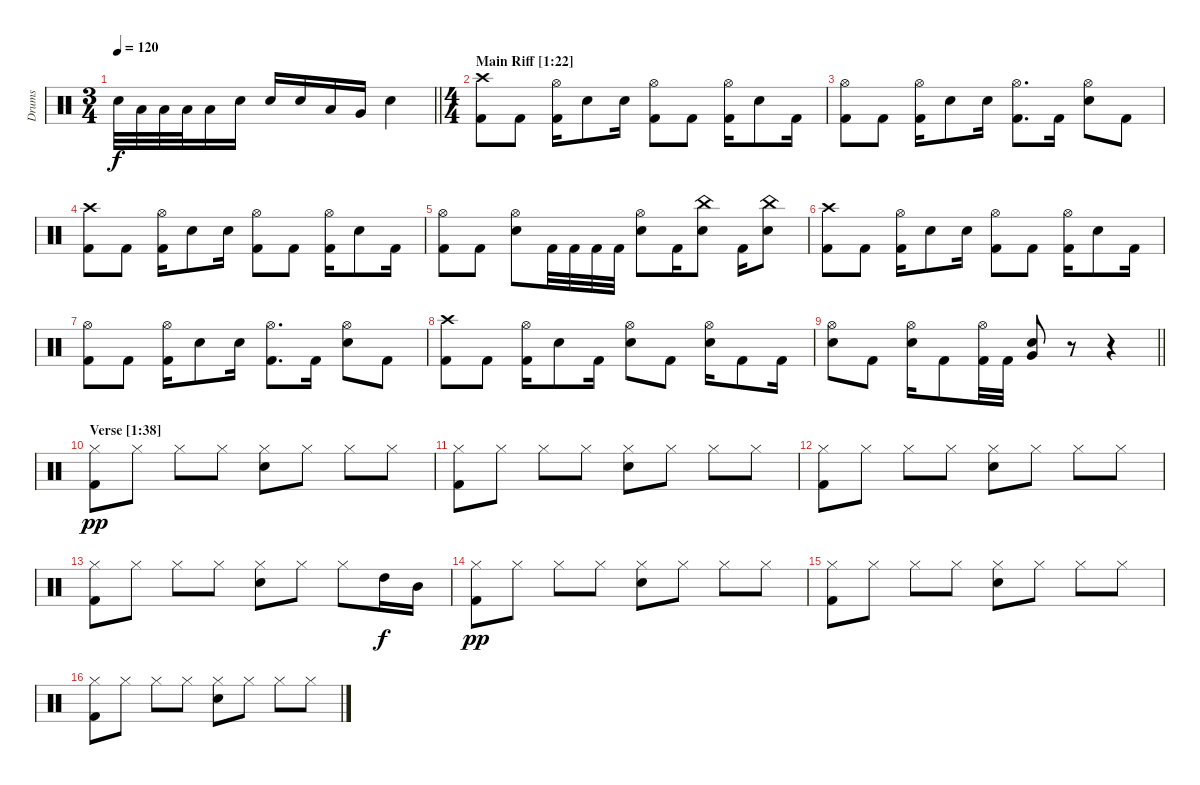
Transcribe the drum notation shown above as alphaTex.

\track ("Drums" "Drums") {instrument percussion}
\staff {score}
\articulation defaults
\ts (3 4)
\tempo 120
\clef neutral
\barLineRight lightlight
\ks c "Snare (hit) 2".32{dy f volume 16} "Low Tom (hit)".32 "Low Tom (hit)".32 "Low Tom (hit)".32 "Low Tom (hit)".16 "Snare (hit) 2".16 "Snare (hit) 2".16 "Snare (hit) 2".16 "Low Tom (hit)".16 "Very Low Tom (hit)".16 "Snare (hit) 2".4
|
\ts (4 4)
\section ("" "Main Riff [1:22]")
("Crash high (hit)" "Kick (hit) 2").8 "Kick (hit) 2".8 ("Hi-Hat (open)" "Kick (hit) 2").16 "Snare (hit) 2".8 "Snare (hit) 2".16 ("Hi-Hat (open)" "Kick (hit) 2").8 "Kick (hit) 2".8 ("Hi-Hat (open)" "Kick (hit) 2").16 "Snare (hit) 2".8 "Kick (hit) 2".16 |
("Hi-Hat (open)" "Kick (hit) 2").8 "Kick (hit) 2".8 ("Hi-Hat (open)" "Kick (hit) 2").16 "Snare (hit) 2".8 "Snare (hit) 2".16 ("Hi-Hat (open)" "Kick (hit) 2").8{d} "Kick (hit) 2".16 ("Hi-Hat (open)" "Snare (hit) 2").8 "Kick (hit) 2".8 |
("Crash high (hit)" "Kick (hit) 2").8 "Kick (hit) 2".8 ("Hi-Hat (open)" "Kick (hit) 2").16 "Snare (hit) 2".8 "Snare (hit) 2".16 ("Hi-Hat (open)" "Kick (hit) 2").8 "Kick (hit) 2".8 ("Hi-Hat (open)" "Kick (hit) 2").16 "Snare (hit) 2".8 "Kick (hit) 2".16 |
("Hi-Hat (open)" "Kick (hit) 2").8 "Kick (hit) 2".8 ("Hi-Hat (open)" "Snare (hit) 2").8 "Kick (hit) 2".32 "Kick (hit) 2".32 "Kick (hit) 2".32 "Kick (hit) 2".32 ("Hi-Hat (open)" "Snare (hit) 2").8 "Kick (hit) 2".16 ("China (hit)" "Snare (hit) 2").8 "Kick (hit) 2".16 ("China (hit)" "Snare (hit) 2").8 |
("Crash high (hit)" "Kick (hit) 2").8 "Kick (hit) 2".8 ("Hi-Hat (open)" "Kick (hit) 2").16 "Snare (hit) 2".8 "Snare (hit) 2".16 ("Hi-Hat (open)" "Kick (hit) 2").8 "Kick (hit) 2".8 ("Hi-Hat (open)" "Kick (hit) 2").16 "Snare (hit) 2".8 "Kick (hit) 2".16 |
("Hi-Hat (open)" "Kick (hit) 2").8 "Kick (hit) 2".8 ("Hi-Hat (open)" "Kick (hit) 2").16 "Snare (hit) 2".8 "Snare (hit) 2".16 ("Hi-Hat (open)" "Kick (hit) 2").8{d} "Kick (hit) 2".16 ("Hi-Hat (open)" "Snare (hit) 2").8 "Kick (hit) 2".8 |
("Crash high (hit)" "Kick (hit) 2").8 "Kick (hit) 2".8 ("Hi-Hat (open)" "Kick (hit) 2").16 "Snare (hit) 2".8 "Kick (hit) 2".16 ("Hi-Hat (open)" "Snare (hit) 2").8 "Kick (hit) 2".8 ("Hi-Hat (open)" "Snare (hit) 2").16 "Kick (hit) 2".8 "Kick (hit) 2".16 |
\barLineRight lightlight
("Hi-Hat (open)" "Snare (hit) 2").8 "Kick (hit) 2".8 ("Hi-Hat (open)" "Snare (hit) 2").16 "Kick (hit) 2".8 ("Hi-Hat (open)" "Kick (hit) 2").32 "Kick (hit) 2".32 ("Very Low Tom (hit)" "Snare (hit) 2").8 r.8 r.4 |
\section ("" "Verse [1:38]")
("Hi-Hat (closed)" "Kick (hit) 2").8{dy pp} "Hi-Hat (closed)".8 "Hi-Hat (closed)".8 "Hi-Hat (closed)".8 ("Hi-Hat (closed)" "Snare (hit) 2").8 "Hi-Hat (closed)".8 "Hi-Hat (closed)".8 "Hi-Hat (closed)".8 |
("Hi-Hat (closed)" "Kick (hit) 2").8 "Hi-Hat (closed)".8 "Hi-Hat (closed)".8 "Hi-Hat (closed)".8 ("Hi-Hat (closed)" "Snare (hit) 2").8 "Hi-Hat (closed)".8 "Hi-Hat (closed)".8 "Hi-Hat (closed)".8 |
("Hi-Hat (closed)" "Kick (hit) 2").8 "Hi-Hat (closed)".8 "Hi-Hat (closed)".8 "Hi-Hat (closed)".8 ("Hi-Hat (closed)" "Snare (hit) 2").8 "Hi-Hat (closed)".8 "Hi-Hat (closed)".8 "Hi-Hat (closed)".8 |
("Hi-Hat (closed)" "Kick (hit) 2").8 "Hi-Hat (closed)".8 "Hi-Hat (closed)".8 "Hi-Hat (closed)".8 ("Hi-Hat (closed)" "Snare (hit) 2").8 "Hi-Hat (closed)".8 "Hi-Hat (closed)".8 "High Tom (hit)".16{dy f} "Mid Tom (hit)".16 |
("Hi-Hat (closed)" "Kick (hit) 2").8{dy pp} "Hi-Hat (closed)".8 "Hi-Hat (closed)".8 "Hi-Hat (closed)".8 ("Hi-Hat (closed)" "Snare (hit) 2").8 "Hi-Hat (closed)".8 "Hi-Hat (closed)".8 "Hi-Hat (closed)".8 |
("Hi-Hat (closed)" "Kick (hit) 2").8 "Hi-Hat (closed)".8 "Hi-Hat (closed)".8 "Hi-Hat (closed)".8 ("Hi-Hat (closed)" "Snare (hit) 2").8 "Hi-Hat (closed)".8 "Hi-Hat (closed)".8 "Hi-Hat (closed)".8 |
("Hi-Hat (closed)" "Kick (hit) 2").8 "Hi-Hat (closed)".8 "Hi-Hat (closed)".8 "Hi-Hat (closed)".8 ("Hi-Hat (closed)" "Snare (hit) 2").8 "Hi-Hat (closed)".8 "Hi-Hat (closed)".8 "Hi-Hat (closed)".8
